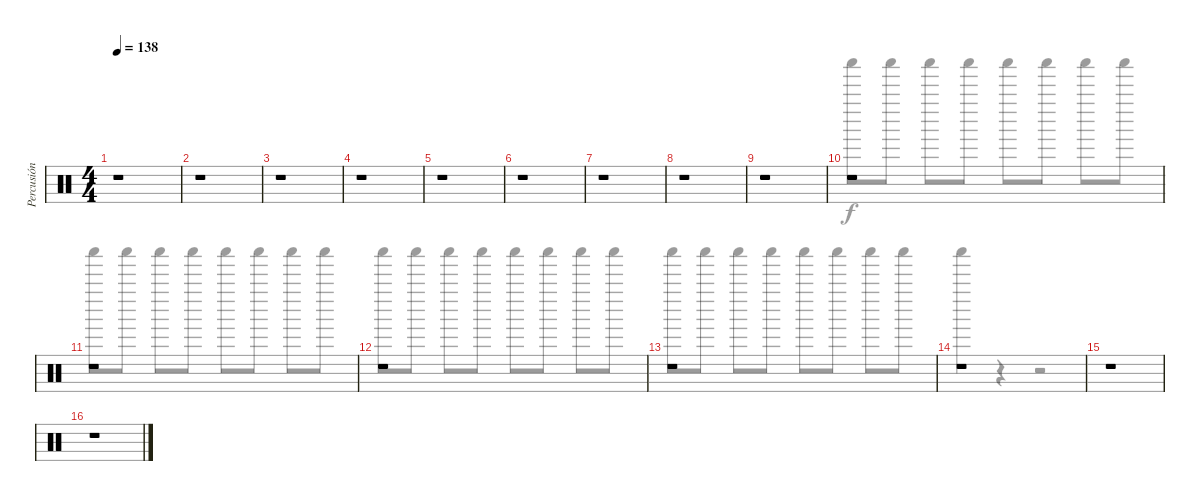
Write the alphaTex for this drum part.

\track ("Percusión" "Percusión") {instrument percussion}
\staff {score}
\articulation defaults
\voice
\ts (4 4)
\tempo 138
\clef neutral
\ks c
r.1{dy f} |
r.1 |
r.1 |
r.1 |
r.1 |
r.1 |
r.1 |
r.1 |
r.1 |
r.1 |
r.1 |
r.1 |
r.1 |
r.1 |
r.1 |
r.1
\voice
\clef neutral
\ottava regular
\simile none
\ks c
|
|
|
|
|
|
|
|
|
"Shaker (hit)".8 "Shaker (hit)".8 "Shaker (hit)".8 "Shaker (hit)".8 "Shaker (hit)".8 "Shaker (hit)".8 "Shaker (hit)".8 "Shaker (hit)".8 |
"Shaker (hit)".8 "Shaker (hit)".8 "Shaker (hit)".8 "Shaker (hit)".8 "Shaker (hit)".8 "Shaker (hit)".8 "Shaker (hit)".8 "Shaker (hit)".8 |
"Shaker (hit)".8 "Shaker (hit)".8 "Shaker (hit)".8 "Shaker (hit)".8 "Shaker (hit)".8 "Shaker (hit)".8 "Shaker (hit)".8 "Shaker (hit)".8 |
"Shaker (hit)".8 "Shaker (hit)".8 "Shaker (hit)".8 "Shaker (hit)".8 "Shaker (hit)".8 "Shaker (hit)".8 "Shaker (hit)".8 "Shaker (hit)".8 |
"Shaker (hit)".4 r.4 r.2 |
|
